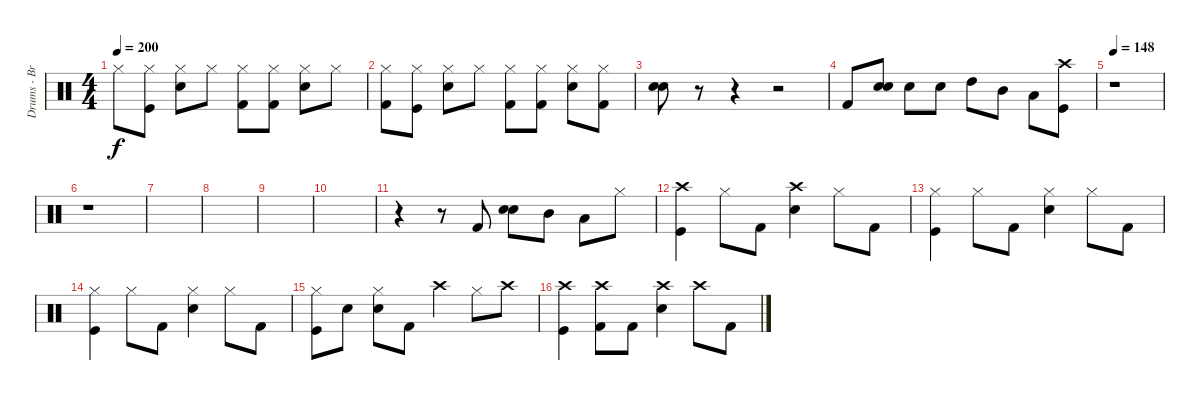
\track ("Drums - Brandon Barnes" "Drums - Br") {instrument percussion}
\staff {score}
\articulation defaults
\ts (4 4)
\tempo 200
\clef neutral
\ks c "Hi-Hat (closed)".8{dy f}
("Hi-Hat (closed)" "Kick (hit)").8 ("Hi-Hat (closed)" "Snare (hit) 2").8 "Hi-Hat (closed)".8 ("Hi-Hat (closed)" "Kick (hit) 2").8 ("Hi-Hat (closed)" "Kick (hit) 2").8 ("Hi-Hat (closed)" "Snare (hit) 2").8 "Hi-Hat (closed)".8 |
("Hi-Hat (closed)" "Kick (hit) 2").8 ("Hi-Hat (closed)" "Kick (hit)").8 ("Hi-Hat (closed)" "Snare (hit) 2").8 "Hi-Hat (closed)".8 ("Hi-Hat (closed)" "Kick (hit) 2").8 ("Hi-Hat (closed)" "Kick (hit) 2").8 ("Hi-Hat (closed)" "Snare (hit) 2").8 ("Hi-Hat (closed)" "Kick (hit) 2").8 |
("Snare (hit) 2" "Electric Snare (hit)").8 r.8 r.4 r.2 |
"Kick (hit) 2".8 ("Electric Snare (hit)" "Snare (hit) 2").8 "Snare (hit) 2".8 "Snare (hit) 2".8 "High Tom (hit)".8 "Mid Tom (hit)".8 "Low Floor Tom (hit)".8 ("Crash high (hit)" "Kick (hit)").8 |
\tempo 148
r.1 |
r.1 |
|
|
|
|
r.4 r.8 "Kick (hit) 2".8 ("Electric Snare (hit)" "Snare (hit) 2").8 "Mid Tom (hit)".8 "Low Floor Tom (hit)".8 "Hi-Hat (closed)".8 |
("Crash high (hit)" "Kick (hit)").4 "Hi-Hat (closed)".8 "Kick (hit) 2".8 ("Snare (hit) 2" "Crash high (hit)").4 "Hi-Hat (closed)".8 "Kick (hit) 2".8 |
("Hi-Hat (closed)" "Kick (hit)").4 "Hi-Hat (closed)".8 "Kick (hit) 2".8 ("Snare (hit) 2" "Hi-Hat (closed)").4 "Hi-Hat (closed)".8 "Kick (hit) 2".8 |
("Hi-Hat (closed)" "Kick (hit)").4 "Hi-Hat (closed)".8 "Kick (hit) 2".8 ("Snare (hit) 2" "Hi-Hat (closed)").4 "Hi-Hat (closed)".8 "Kick (hit) 2".8 |
("Hi-Hat (closed)" "Kick (hit)").8 "Electric Snare (hit)".8 ("Snare (hit) 2" "Hi-Hat (closed)").8 "Kick (hit) 2".8 "Crash high (hit)".4 "Hi-Hat (closed)".8 "Crash high (hit)".8 |
("Crash high (hit)" "Kick (hit)").4 ("Crash high (hit)" "Kick (hit) 2").8 "Kick (hit) 2".8 ("Snare (hit) 2" "Crash high (hit)").4 "Crash high (hit)".8 "Kick (hit) 2".8
